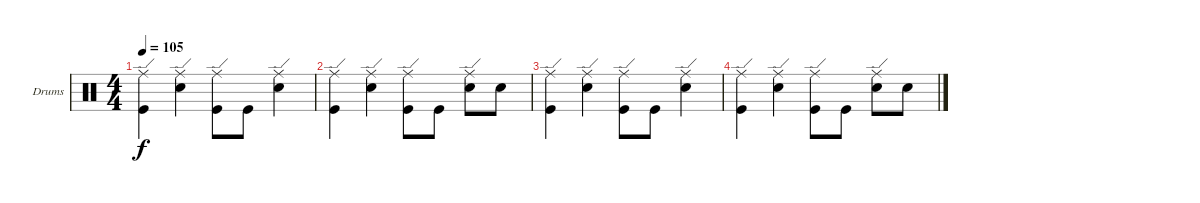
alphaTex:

\defaultSystemsLayout 4
\bracketExtendMode groupsimilarinstruments
\firstSystemTrackNameOrientation horizontal
\otherSystemsTrackNameOrientation horizontal
\track ("Drumkit" "Drums") {instrument percussion}
\staff {score}
\articulation defaults
\ts (4 4)
\tempo 105
\clef neutral
\ks c
("Ride (edge)" "Kick (hit)").4{dy f} ("Ride (edge)" "Snare (hit) 2").4 ("Ride (edge)" "Kick (hit)").8 "Kick (hit)".8 ("Ride (edge)" "Snare (hit) 2").4 |
("Ride (edge)" "Kick (hit)").4 ("Ride (edge)" "Snare (hit) 2").4 ("Ride (edge)" "Kick (hit)").8 "Kick (hit)".8 ("Ride (edge)" "Snare (hit) 2").8 "Snare (hit) 2".8 |
("Ride (edge)" "Kick (hit)").4 ("Ride (edge)" "Snare (hit) 2").4 ("Ride (edge)" "Kick (hit)").8 "Kick (hit)".8 ("Ride (edge)" "Snare (hit) 2").4 |
("Ride (edge)" "Kick (hit)").4 ("Ride (edge)" "Snare (hit) 2").4 ("Ride (edge)" "Kick (hit)").8 "Kick (hit)".8 ("Ride (edge)" "Snare (hit) 2").8 "Snare (hit) 2".8
